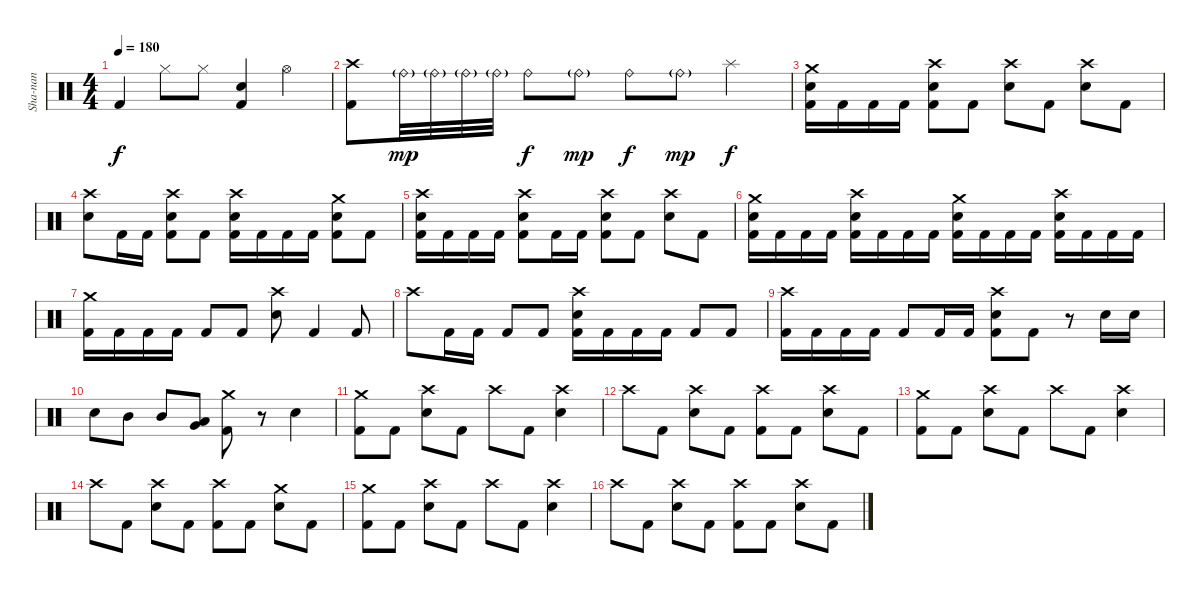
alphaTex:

\track ("Sha-nan" "Sha-nan") {instrument percussion}
\staff {score}
\articulation defaults
\ts (4 4)
\tempo 180
\clef neutral
\ks c "Kick (hit) 2".4{dy f} "Hi-Hat (closed)".8 "Hi-Hat (closed)".8
("Snare (hit) 2" "Kick (hit) 2").4 "Hi-Hat (open)".4 |
("Crash high (hit)" "Kick (hit) 2").8 "Ride (bell)"{g}.32{dy mp} "Ride (bell)"{g}.32 "Ride (bell)"{g}.32 "Ride (bell)"{g}.32 "Ride (bell)".8{dy f} "Ride (bell)"{g}.8{dy mp} "Ride (bell)".8{dy f} "Ride (bell)"{g}.8{dy mp} "Splash (hit)".4{dy f} |
("Crash medium (hit)" "Snare (hit) 2" "Kick (hit) 2").16 "Kick (hit) 2".16 "Kick (hit) 2".16 "Kick (hit) 2".16 ("Crash high (hit)" "Snare (hit) 2" "Kick (hit) 2").8 "Kick (hit) 2".8 ("Crash high (hit)" "Snare (hit) 2").8 "Kick (hit) 2".8 ("Crash high (hit)" "Snare (hit) 2").8 "Kick (hit) 2".8 |
("Crash high (hit)" "Snare (hit) 2").8 "Kick (hit) 2".16 "Kick (hit) 2".16 ("Crash high (hit)" "Snare (hit) 2" "Kick (hit) 2").8 "Kick (hit) 2".8 ("Crash high (hit)" "Snare (hit) 2" "Kick (hit) 2").16 "Kick (hit) 2".16 "Kick (hit) 2".16 "Kick (hit) 2".16 ("Crash medium (hit)" "Snare (hit) 2" "Kick (hit) 2").8 "Kick (hit) 2".8 |
("Crash high (hit)" "Snare (hit) 2" "Kick (hit) 2").16 "Kick (hit) 2".16 "Kick (hit) 2".16 "Kick (hit) 2".16 ("Crash high (hit)" "Snare (hit) 2" "Kick (hit) 2").8 "Kick (hit) 2".16 "Kick (hit) 2".16 ("Crash high (hit)" "Snare (hit) 2" "Kick (hit) 2").8 "Kick (hit) 2".8 ("Crash high (hit)" "Snare (hit) 2").8 "Kick (hit) 2".8 |
("Crash medium (hit)" "Snare (hit) 2" "Kick (hit) 2").16 "Kick (hit) 2".16 "Kick (hit) 2".16 "Kick (hit) 2".16 ("Crash high (hit)" "Snare (hit) 2" "Kick (hit) 2").16 "Kick (hit) 2".16 "Kick (hit) 2".16 "Kick (hit) 2".16 ("Crash medium (hit)" "Snare (hit) 2" "Kick (hit) 2").16 "Kick (hit) 2".16 "Kick (hit) 2".16 "Kick (hit) 2".16 ("Crash high (hit)" "Snare (hit) 2" "Kick (hit) 2").16 "Kick (hit) 2".16 "Kick (hit) 2".16 "Kick (hit) 2".16 |
("Crash medium (hit)" "Kick (hit) 2").16 "Kick (hit) 2".16 "Kick (hit) 2".16 "Kick (hit) 2".16 "Kick (hit) 2".8 "Kick (hit) 2".8 ("Crash high (hit)" "Snare (hit) 2").8 "Kick (hit) 2".4 "Kick (hit) 2".8 |
"Crash high (hit)".8 "Kick (hit) 2".16 "Kick (hit) 2".16 "Kick (hit) 2".8 "Kick (hit) 2".8 ("Crash high (hit)" "Snare (hit) 2" "Kick (hit) 2").16 "Kick (hit) 2".16 "Kick (hit) 2".16 "Kick (hit) 2".16 "Kick (hit) 2".8 "Kick (hit) 2".8 |
("Crash high (hit)" "Kick (hit) 2").16 "Kick (hit) 2".16 "Kick (hit) 2".16 "Kick (hit) 2".16 "Kick (hit) 2".8 "Kick (hit) 2".16 "Kick (hit) 2".16 ("Crash high (hit)" "Snare (hit) 2" "Kick (hit) 2").8 "Kick (hit) 2".8 r.8 "Snare (hit) 2".16 "Snare (hit) 2".16 |
"Snare (hit) 2".8 "Mid Tom (hit)".8 "Mid Tom (hit)".8 ("Low Tom (hit)" "Very Low Tom (hit)").8 ("Crash medium (hit)" "Kick (hit) 2").8 r.8{volume 0} "Hand Clap (hit)".4{volume 16} |
("Crash medium (hit)" "Kick (hit) 2").8 "Kick (hit) 2".8 ("Crash high (hit)" "Snare (hit) 2").8 "Kick (hit) 2".8 "Crash high (hit)".8 "Kick (hit) 2".8 ("Crash high (hit)" "Snare (hit) 2").4 |
"Crash high (hit)".8 "Kick (hit) 2".8 ("Crash high (hit)" "Snare (hit) 2").8 "Kick (hit) 2".8 ("Crash high (hit)" "Kick (hit) 2").8 "Kick (hit) 2".8 ("Crash high (hit)" "Snare (hit) 2").8 "Kick (hit) 2".8 |
("Crash medium (hit)" "Kick (hit) 2").8 "Kick (hit) 2".8 ("Crash high (hit)" "Snare (hit) 2").8 "Kick (hit) 2".8 "Crash high (hit)".8 "Kick (hit) 2".8 ("Crash high (hit)" "Snare (hit) 2").4 |
"Crash high (hit)".8 "Kick (hit) 2".8 ("Crash high (hit)" "Snare (hit) 2").8 "Kick (hit) 2".8 ("Crash high (hit)" "Kick (hit) 2").8 "Kick (hit) 2".8 ("Crash medium (hit)" "Snare (hit) 2").8 "Kick (hit) 2".8 |
("Crash medium (hit)" "Kick (hit) 2").8 "Kick (hit) 2".8 ("Crash high (hit)" "Snare (hit) 2").8 "Kick (hit) 2".8 "Crash high (hit)".8 "Kick (hit) 2".8 ("Crash high (hit)" "Snare (hit) 2").4 |
"Crash high (hit)".8 "Kick (hit) 2".8 ("Crash high (hit)" "Snare (hit) 2").8 "Kick (hit) 2".8 ("Crash high (hit)" "Kick (hit) 2").8 "Kick (hit) 2".8 ("Crash high (hit)" "Snare (hit) 2").8 "Kick (hit) 2".8
